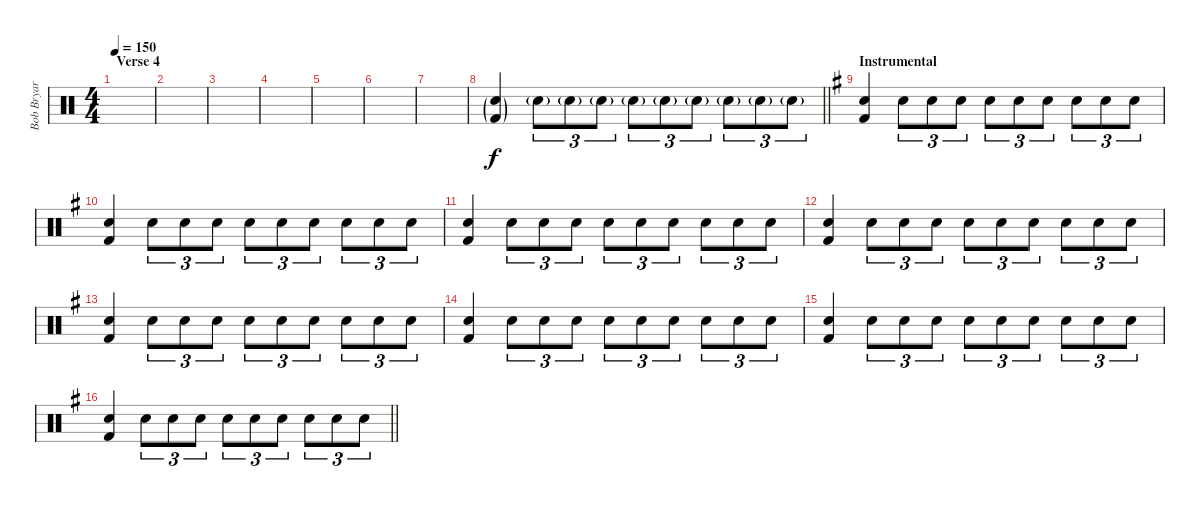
\track ("Bob Bryar (percussion)" "Bob Bryar ") {instrument percussion}
\staff {score}
\articulation defaults
\ts (4 4)
\section ("" "Verse 4")
\tempo 150
\clef neutral
\ks c
|
|
|
|
|
|
|
\barLineRight lightlight
("Electric Snare (hit)"{g} "Kick (hit) 2"{g}).4{volume 13} "Electric Snare (hit)"{g}.8{tu (3 2)} "Electric Snare (hit)"{g}.8{tu (3 2)} "Electric Snare (hit)"{g}.8{tu (3 2)} "Electric Snare (hit)"{g}.8{tu (3 2)} "Electric Snare (hit)"{g}.8{tu (3 2)} "Electric Snare (hit)"{g}.8{tu (3 2)} "Electric Snare (hit)"{g}.8{tu (3 2)} "Electric Snare (hit)"{g}.8{tu (3 2)} "Electric Snare (hit)"{g}.8{tu (3 2)} |
\section ("" "Instrumental")
\ks eminor
("Electric Snare (hit)" "Kick (hit) 2").4{dy f volume 12} "Electric Snare (hit)".8{tu (3 2)} "Electric Snare (hit)".8{tu (3 2)} "Electric Snare (hit)".8{tu (3 2)} "Electric Snare (hit)".8{tu (3 2)} "Electric Snare (hit)".8{tu (3 2)} "Electric Snare (hit)".8{tu (3 2)} "Electric Snare (hit)".8{tu (3 2)} "Electric Snare (hit)".8{tu (3 2)} "Electric Snare (hit)".8{tu (3 2)} |
("Electric Snare (hit)" "Kick (hit) 2").4 "Electric Snare (hit)".8{tu (3 2)} "Electric Snare (hit)".8{tu (3 2)} "Electric Snare (hit)".8{tu (3 2)} "Electric Snare (hit)".8{tu (3 2)} "Electric Snare (hit)".8{tu (3 2)} "Electric Snare (hit)".8{tu (3 2)} "Electric Snare (hit)".8{tu (3 2)} "Electric Snare (hit)".8{tu (3 2)} "Electric Snare (hit)".8{tu (3 2)} |
("Electric Snare (hit)" "Kick (hit) 2").4 "Electric Snare (hit)".8{tu (3 2)} "Electric Snare (hit)".8{tu (3 2)} "Electric Snare (hit)".8{tu (3 2)} "Electric Snare (hit)".8{tu (3 2)} "Electric Snare (hit)".8{tu (3 2)} "Electric Snare (hit)".8{tu (3 2)} "Electric Snare (hit)".8{tu (3 2)} "Electric Snare (hit)".8{tu (3 2)} "Electric Snare (hit)".8{tu (3 2)} |
("Electric Snare (hit)" "Kick (hit) 2").4 "Electric Snare (hit)".8{tu (3 2)} "Electric Snare (hit)".8{tu (3 2)} "Electric Snare (hit)".8{tu (3 2)} "Electric Snare (hit)".8{tu (3 2)} "Electric Snare (hit)".8{tu (3 2)} "Electric Snare (hit)".8{tu (3 2)} "Electric Snare (hit)".8{tu (3 2)} "Electric Snare (hit)".8{tu (3 2)} "Electric Snare (hit)".8{tu (3 2)} |
("Electric Snare (hit)" "Kick (hit) 2").4 "Electric Snare (hit)".8{tu (3 2)} "Electric Snare (hit)".8{tu (3 2)} "Electric Snare (hit)".8{tu (3 2)} "Electric Snare (hit)".8{tu (3 2)} "Electric Snare (hit)".8{tu (3 2)} "Electric Snare (hit)".8{tu (3 2)} "Electric Snare (hit)".8{tu (3 2)} "Electric Snare (hit)".8{tu (3 2)} "Electric Snare (hit)".8{tu (3 2)} |
("Electric Snare (hit)" "Kick (hit) 2").4 "Electric Snare (hit)".8{tu (3 2)} "Electric Snare (hit)".8{tu (3 2)} "Electric Snare (hit)".8{tu (3 2)} "Electric Snare (hit)".8{tu (3 2)} "Electric Snare (hit)".8{tu (3 2)} "Electric Snare (hit)".8{tu (3 2)} "Electric Snare (hit)".8{tu (3 2)} "Electric Snare (hit)".8{tu (3 2)} "Electric Snare (hit)".8{tu (3 2)} |
("Electric Snare (hit)" "Kick (hit) 2").4 "Electric Snare (hit)".8{tu (3 2)} "Electric Snare (hit)".8{tu (3 2)} "Electric Snare (hit)".8{tu (3 2)} "Electric Snare (hit)".8{tu (3 2)} "Electric Snare (hit)".8{tu (3 2)} "Electric Snare (hit)".8{tu (3 2)} "Electric Snare (hit)".8{tu (3 2)} "Electric Snare (hit)".8{tu (3 2)} "Electric Snare (hit)".8{tu (3 2)} |
\barLineRight lightlight
("Electric Snare (hit)" "Kick (hit) 2").4 "Electric Snare (hit)".8{tu (3 2)} "Electric Snare (hit)".8{tu (3 2)} "Electric Snare (hit)".8{tu (3 2)} "Electric Snare (hit)".8{tu (3 2)} "Electric Snare (hit)".8{tu (3 2)} "Electric Snare (hit)".8{tu (3 2)} "Electric Snare (hit)".8{tu (3 2)} "Electric Snare (hit)".8{tu (3 2)} "Electric Snare (hit)".8{tu (3 2)}
